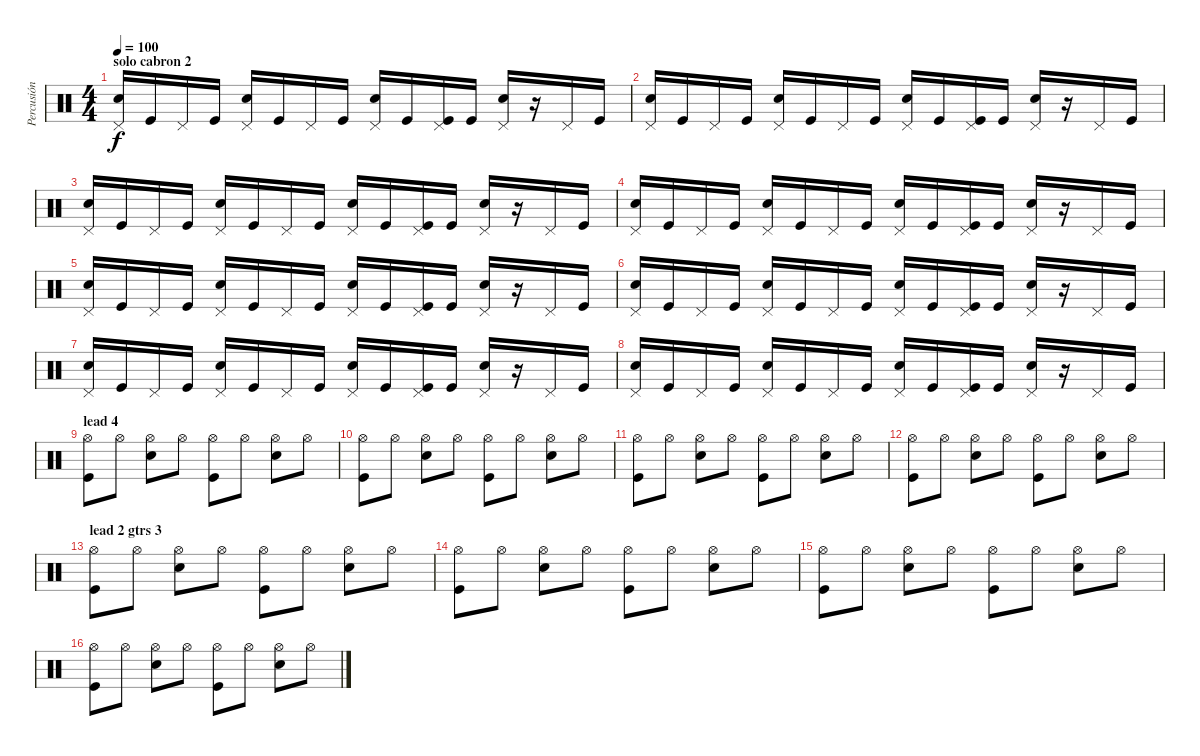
\track ("Percusión" "Percusión") {instrument percussion}
\staff {score}
\articulation defaults
\ts (4 4)
\section ("" "solo cabron 2")
\tempo 100
\clef neutral
\ks c
("Pedal Hi-Hat (hit)" "Electric Snare (hit)").16{dy f} "Kick (hit)".16 "Pedal Hi-Hat (hit)".16 "Kick (hit)".16 ("Pedal Hi-Hat (hit)" "Electric Snare (hit)").16 "Kick (hit)".16 "Pedal Hi-Hat (hit)".16 "Kick (hit)".16 ("Pedal Hi-Hat (hit)" "Electric Snare (hit)").16 "Kick (hit)".16 ("Pedal Hi-Hat (hit)" "Kick (hit)").16 "Kick (hit)".16 ("Pedal Hi-Hat (hit)" "Electric Snare (hit)").16 r.16 "Pedal Hi-Hat (hit)".16 "Kick (hit)".16 |
("Pedal Hi-Hat (hit)" "Electric Snare (hit)").16 "Kick (hit)".16 "Pedal Hi-Hat (hit)".16 "Kick (hit)".16 ("Pedal Hi-Hat (hit)" "Electric Snare (hit)").16 "Kick (hit)".16 "Pedal Hi-Hat (hit)".16 "Kick (hit)".16 ("Pedal Hi-Hat (hit)" "Electric Snare (hit)").16 "Kick (hit)".16 ("Pedal Hi-Hat (hit)" "Kick (hit)").16 "Kick (hit)".16 ("Pedal Hi-Hat (hit)" "Electric Snare (hit)").16 r.16 "Pedal Hi-Hat (hit)".16 "Kick (hit)".16 |
("Pedal Hi-Hat (hit)" "Electric Snare (hit)").16 "Kick (hit)".16 "Pedal Hi-Hat (hit)".16 "Kick (hit)".16 ("Pedal Hi-Hat (hit)" "Electric Snare (hit)").16 "Kick (hit)".16 "Pedal Hi-Hat (hit)".16 "Kick (hit)".16 ("Pedal Hi-Hat (hit)" "Electric Snare (hit)").16 "Kick (hit)".16 ("Pedal Hi-Hat (hit)" "Kick (hit)").16 "Kick (hit)".16 ("Pedal Hi-Hat (hit)" "Electric Snare (hit)").16 r.16 "Pedal Hi-Hat (hit)".16 "Kick (hit)".16 |
("Pedal Hi-Hat (hit)" "Electric Snare (hit)").16 "Kick (hit)".16 "Pedal Hi-Hat (hit)".16 "Kick (hit)".16 ("Pedal Hi-Hat (hit)" "Electric Snare (hit)").16 "Kick (hit)".16 "Pedal Hi-Hat (hit)".16 "Kick (hit)".16 ("Pedal Hi-Hat (hit)" "Electric Snare (hit)").16 "Kick (hit)".16 ("Pedal Hi-Hat (hit)" "Kick (hit)").16 "Kick (hit)".16 ("Pedal Hi-Hat (hit)" "Electric Snare (hit)").16 r.16 "Pedal Hi-Hat (hit)".16 "Kick (hit)".16 |
("Pedal Hi-Hat (hit)" "Electric Snare (hit)").16 "Kick (hit)".16 "Pedal Hi-Hat (hit)".16 "Kick (hit)".16 ("Pedal Hi-Hat (hit)" "Electric Snare (hit)").16 "Kick (hit)".16 "Pedal Hi-Hat (hit)".16 "Kick (hit)".16 ("Pedal Hi-Hat (hit)" "Electric Snare (hit)").16 "Kick (hit)".16 ("Pedal Hi-Hat (hit)" "Kick (hit)").16 "Kick (hit)".16 ("Pedal Hi-Hat (hit)" "Electric Snare (hit)").16 r.16 "Pedal Hi-Hat (hit)".16 "Kick (hit)".16 |
("Pedal Hi-Hat (hit)" "Electric Snare (hit)").16 "Kick (hit)".16 "Pedal Hi-Hat (hit)".16 "Kick (hit)".16 ("Pedal Hi-Hat (hit)" "Electric Snare (hit)").16 "Kick (hit)".16 "Pedal Hi-Hat (hit)".16 "Kick (hit)".16 ("Pedal Hi-Hat (hit)" "Electric Snare (hit)").16 "Kick (hit)".16 ("Pedal Hi-Hat (hit)" "Kick (hit)").16 "Kick (hit)".16 ("Pedal Hi-Hat (hit)" "Electric Snare (hit)").16 r.16 "Pedal Hi-Hat (hit)".16 "Kick (hit)".16 |
("Pedal Hi-Hat (hit)" "Electric Snare (hit)").16 "Kick (hit)".16 "Pedal Hi-Hat (hit)".16 "Kick (hit)".16 ("Pedal Hi-Hat (hit)" "Electric Snare (hit)").16 "Kick (hit)".16 "Pedal Hi-Hat (hit)".16 "Kick (hit)".16 ("Pedal Hi-Hat (hit)" "Electric Snare (hit)").16 "Kick (hit)".16 ("Pedal Hi-Hat (hit)" "Kick (hit)").16 "Kick (hit)".16 ("Pedal Hi-Hat (hit)" "Electric Snare (hit)").16 r.16 "Pedal Hi-Hat (hit)".16 "Kick (hit)".16 |
("Pedal Hi-Hat (hit)" "Electric Snare (hit)").16 "Kick (hit)".16 "Pedal Hi-Hat (hit)".16 "Kick (hit)".16 ("Pedal Hi-Hat (hit)" "Electric Snare (hit)").16 "Kick (hit)".16 "Pedal Hi-Hat (hit)".16 "Kick (hit)".16 ("Pedal Hi-Hat (hit)" "Electric Snare (hit)").16 "Kick (hit)".16 ("Pedal Hi-Hat (hit)" "Kick (hit)").16 "Kick (hit)".16 ("Pedal Hi-Hat (hit)" "Electric Snare (hit)").16 r.16 "Pedal Hi-Hat (hit)".16 "Kick (hit)".16 |
\section ("" "lead 4")
("Hi-Hat (open)" "Kick (hit)").8 "Hi-Hat (open)".8 ("Hi-Hat (open)" "Electric Snare (hit)").8 "Hi-Hat (open)".8 ("Hi-Hat (open)" "Kick (hit)").8 "Hi-Hat (open)".8 ("Hi-Hat (open)" "Electric Snare (hit)").8 "Hi-Hat (open)".8 |
("Hi-Hat (open)" "Kick (hit)").8 "Hi-Hat (open)".8 ("Hi-Hat (open)" "Electric Snare (hit)").8 "Hi-Hat (open)".8 ("Hi-Hat (open)" "Kick (hit)").8 "Hi-Hat (open)".8 ("Hi-Hat (open)" "Electric Snare (hit)").8 "Hi-Hat (open)".8 |
("Hi-Hat (open)" "Kick (hit)").8 "Hi-Hat (open)".8 ("Hi-Hat (open)" "Electric Snare (hit)").8 "Hi-Hat (open)".8 ("Hi-Hat (open)" "Kick (hit)").8 "Hi-Hat (open)".8 ("Hi-Hat (open)" "Electric Snare (hit)").8 "Hi-Hat (open)".8 |
("Hi-Hat (open)" "Kick (hit)").8 "Hi-Hat (open)".8 ("Hi-Hat (open)" "Electric Snare (hit)").8 "Hi-Hat (open)".8 ("Hi-Hat (open)" "Kick (hit)").8 "Hi-Hat (open)".8 ("Hi-Hat (open)" "Electric Snare (hit)").8 "Hi-Hat (open)".8 |
\section ("" "lead 2 gtrs 3")
("Hi-Hat (open)" "Kick (hit)").8 "Hi-Hat (open)".8 ("Hi-Hat (open)" "Electric Snare (hit)").8 "Hi-Hat (open)".8 ("Hi-Hat (open)" "Kick (hit)").8 "Hi-Hat (open)".8 ("Hi-Hat (open)" "Electric Snare (hit)").8 "Hi-Hat (open)".8 |
("Hi-Hat (open)" "Kick (hit)").8 "Hi-Hat (open)".8 ("Hi-Hat (open)" "Electric Snare (hit)").8 "Hi-Hat (open)".8 ("Hi-Hat (open)" "Kick (hit)").8 "Hi-Hat (open)".8 ("Hi-Hat (open)" "Electric Snare (hit)").8 "Hi-Hat (open)".8 |
("Hi-Hat (open)" "Kick (hit)").8 "Hi-Hat (open)".8 ("Hi-Hat (open)" "Electric Snare (hit)").8 "Hi-Hat (open)".8 ("Hi-Hat (open)" "Kick (hit)").8 "Hi-Hat (open)".8 ("Hi-Hat (open)" "Electric Snare (hit)").8 "Hi-Hat (open)".8 |
("Hi-Hat (open)" "Kick (hit)").8 "Hi-Hat (open)".8 ("Hi-Hat (open)" "Electric Snare (hit)").8 "Hi-Hat (open)".8 ("Hi-Hat (open)" "Kick (hit)").8 "Hi-Hat (open)".8 ("Hi-Hat (open)" "Electric Snare (hit)").8 "Hi-Hat (open)".8
